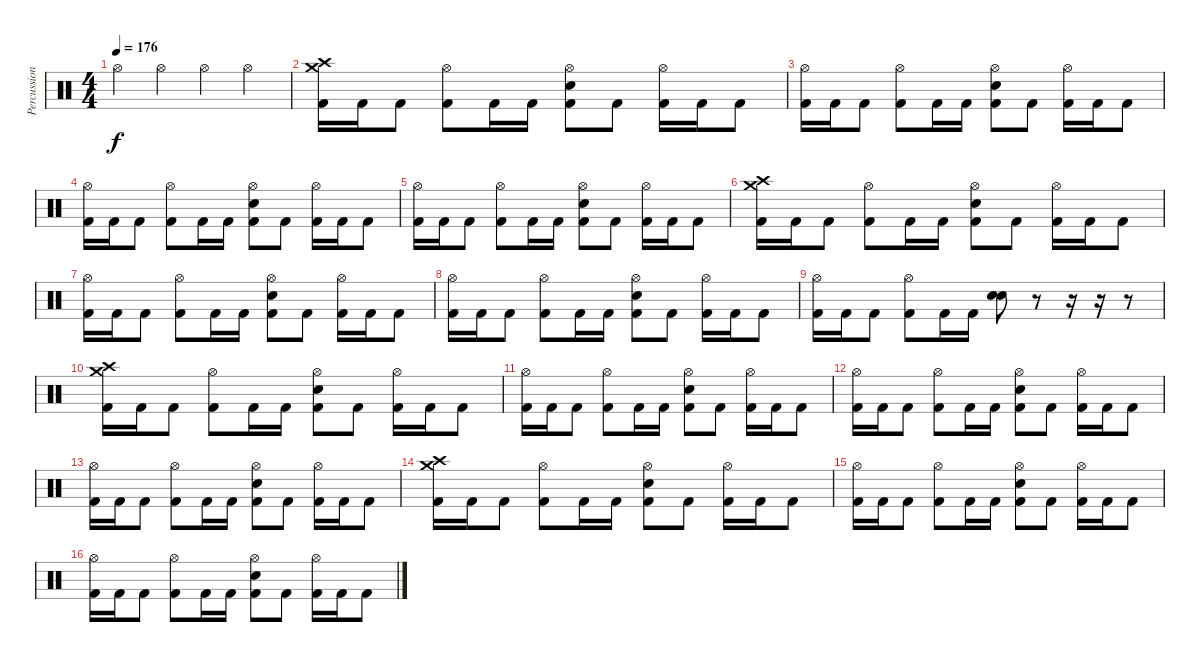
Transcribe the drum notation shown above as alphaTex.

\track ("Percussion" "Percussion") {instrument percussion}
\staff {score}
\articulation defaults
\ts (4 4)
\tempo 176
\clef neutral
\ks c "Hi-Hat (open)".4{dy f} "Hi-Hat (open)".4 "Hi-Hat (open)".4 "Hi-Hat (open)".4
|
("Crash high (hit)" "Crash medium (hit)" "Kick (hit) 2").16 "Kick (hit) 2".16 "Kick (hit) 2".8 ("Hi-Hat (open)" "Kick (hit) 2").8 "Kick (hit) 2".16 "Kick (hit) 2".16 ("Hi-Hat (open)" "Snare (hit) 2" "Kick (hit) 2").8 "Kick (hit) 2".8 ("Hi-Hat (open)" "Kick (hit) 2").16 "Kick (hit) 2".16 "Kick (hit) 2".8 |
("Hi-Hat (open)" "Kick (hit) 2").16 "Kick (hit) 2".16 "Kick (hit) 2".8 ("Hi-Hat (open)" "Kick (hit) 2").8 "Kick (hit) 2".16 "Kick (hit) 2".16 ("Hi-Hat (open)" "Snare (hit) 2" "Kick (hit) 2").8 "Kick (hit) 2".8 ("Hi-Hat (open)" "Kick (hit) 2").16 "Kick (hit) 2".16 "Kick (hit) 2".8 |
("Hi-Hat (open)" "Kick (hit) 2").16 "Kick (hit) 2".16 "Kick (hit) 2".8 ("Hi-Hat (open)" "Kick (hit) 2").8 "Kick (hit) 2".16 "Kick (hit) 2".16 ("Hi-Hat (open)" "Snare (hit) 2" "Kick (hit) 2").8 "Kick (hit) 2".8 ("Hi-Hat (open)" "Kick (hit) 2").16 "Kick (hit) 2".16 "Kick (hit) 2".8 |
("Hi-Hat (open)" "Kick (hit) 2").16 "Kick (hit) 2".16 "Kick (hit) 2".8 ("Hi-Hat (open)" "Kick (hit) 2").8 "Kick (hit) 2".16 "Kick (hit) 2".16 ("Hi-Hat (open)" "Snare (hit) 2" "Kick (hit) 2").8 "Kick (hit) 2".8 ("Hi-Hat (open)" "Kick (hit) 2").16 "Kick (hit) 2".16 "Kick (hit) 2".8 |
("Crash high (hit)" "Crash medium (hit)" "Kick (hit) 2").16 "Kick (hit) 2".16 "Kick (hit) 2".8 ("Hi-Hat (open)" "Kick (hit) 2").8 "Kick (hit) 2".16 "Kick (hit) 2".16 ("Hi-Hat (open)" "Snare (hit) 2" "Kick (hit) 2").8 "Kick (hit) 2".8 ("Hi-Hat (open)" "Kick (hit) 2").16 "Kick (hit) 2".16 "Kick (hit) 2".8 |
("Hi-Hat (open)" "Kick (hit) 2").16 "Kick (hit) 2".16 "Kick (hit) 2".8 ("Hi-Hat (open)" "Kick (hit) 2").8 "Kick (hit) 2".16 "Kick (hit) 2".16 ("Hi-Hat (open)" "Snare (hit) 2" "Kick (hit) 2").8 "Kick (hit) 2".8 ("Hi-Hat (open)" "Kick (hit) 2").16 "Kick (hit) 2".16 "Kick (hit) 2".8 |
("Hi-Hat (open)" "Kick (hit) 2").16 "Kick (hit) 2".16 "Kick (hit) 2".8 ("Hi-Hat (open)" "Kick (hit) 2").8 "Kick (hit) 2".16 "Kick (hit) 2".16 ("Hi-Hat (open)" "Snare (hit) 2" "Kick (hit) 2").8 "Kick (hit) 2".8 ("Hi-Hat (open)" "Kick (hit) 2").16 "Kick (hit) 2".16 "Kick (hit) 2".8 |
("Hi-Hat (open)" "Kick (hit) 2").16 "Kick (hit) 2".16 "Kick (hit) 2".8 ("Hi-Hat (open)" "Kick (hit) 2").8 "Kick (hit) 2".16 "Kick (hit) 2".16 ("Snare (hit) 2" "Snare (hit) 2").8 r.8 r.16 r.16 r.8 |
("Crash high (hit)" "Crash medium (hit)" "Kick (hit) 2").16 "Kick (hit) 2".16 "Kick (hit) 2".8 ("Hi-Hat (open)" "Kick (hit) 2").8 "Kick (hit) 2".16 "Kick (hit) 2".16 ("Hi-Hat (open)" "Snare (hit) 2" "Kick (hit) 2").8 "Kick (hit) 2".8 ("Hi-Hat (open)" "Kick (hit) 2").16 "Kick (hit) 2".16 "Kick (hit) 2".8 |
("Hi-Hat (open)" "Kick (hit) 2").16 "Kick (hit) 2".16 "Kick (hit) 2".8 ("Hi-Hat (open)" "Kick (hit) 2").8 "Kick (hit) 2".16 "Kick (hit) 2".16 ("Hi-Hat (open)" "Snare (hit) 2" "Kick (hit) 2").8 "Kick (hit) 2".8 ("Hi-Hat (open)" "Kick (hit) 2").16 "Kick (hit) 2".16 "Kick (hit) 2".8 |
("Hi-Hat (open)" "Kick (hit) 2").16 "Kick (hit) 2".16 "Kick (hit) 2".8 ("Hi-Hat (open)" "Kick (hit) 2").8 "Kick (hit) 2".16 "Kick (hit) 2".16 ("Hi-Hat (open)" "Snare (hit) 2" "Kick (hit) 2").8 "Kick (hit) 2".8 ("Hi-Hat (open)" "Kick (hit) 2").16 "Kick (hit) 2".16 "Kick (hit) 2".8 |
("Hi-Hat (open)" "Kick (hit) 2").16 "Kick (hit) 2".16 "Kick (hit) 2".8 ("Hi-Hat (open)" "Kick (hit) 2").8 "Kick (hit) 2".16 "Kick (hit) 2".16 ("Hi-Hat (open)" "Snare (hit) 2" "Kick (hit) 2").8 "Kick (hit) 2".8 ("Hi-Hat (open)" "Kick (hit) 2").16 "Kick (hit) 2".16 "Kick (hit) 2".8 |
("Crash high (hit)" "Crash medium (hit)" "Kick (hit) 2").16 "Kick (hit) 2".16 "Kick (hit) 2".8 ("Hi-Hat (open)" "Kick (hit) 2").8 "Kick (hit) 2".16 "Kick (hit) 2".16 ("Hi-Hat (open)" "Snare (hit) 2" "Kick (hit) 2").8 "Kick (hit) 2".8 ("Hi-Hat (open)" "Kick (hit) 2").16 "Kick (hit) 2".16 "Kick (hit) 2".8 |
("Hi-Hat (open)" "Kick (hit) 2").16 "Kick (hit) 2".16 "Kick (hit) 2".8 ("Hi-Hat (open)" "Kick (hit) 2").8 "Kick (hit) 2".16 "Kick (hit) 2".16 ("Hi-Hat (open)" "Snare (hit) 2" "Kick (hit) 2").8 "Kick (hit) 2".8 ("Hi-Hat (open)" "Kick (hit) 2").16 "Kick (hit) 2".16 "Kick (hit) 2".8 |
("Hi-Hat (open)" "Kick (hit) 2").16 "Kick (hit) 2".16 "Kick (hit) 2".8 ("Hi-Hat (open)" "Kick (hit) 2").8 "Kick (hit) 2".16 "Kick (hit) 2".16 ("Hi-Hat (open)" "Snare (hit) 2" "Kick (hit) 2").8 "Kick (hit) 2".8 ("Hi-Hat (open)" "Kick (hit) 2").16 "Kick (hit) 2".16 "Kick (hit) 2".8
